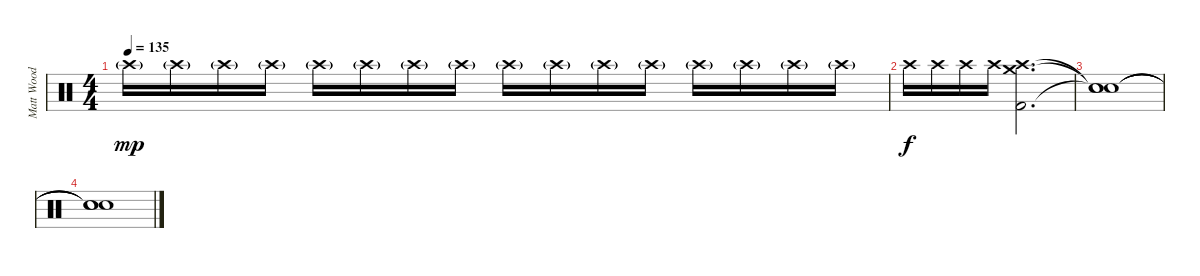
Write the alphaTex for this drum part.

\track ("Matt Wood" "Matt Wood") {instrument percussion}
\staff {score}
\articulation defaults
\ts (4 4)
\tempo 135
\clef neutral
\ks c "Crash high (hit)"{g}.16{dy mp} "Crash high (hit)"{g}.16 "Crash high (hit)"{g}.16 "Crash high (hit)"{g}.16 "Crash high (hit)"{g}.16 "Crash high (hit)"{g}.16 "Crash high (hit)"{g}.16 "Crash high (hit)"{g}.16 "Crash high (hit)"{g}.16 "Crash high (hit)"{g}.16 "Crash high (hit)"{g}.16 "Crash high (hit)"{g}.16 "Crash high (hit)"{g}.16 "Crash high (hit)"{g}.16 "Crash high (hit)"{g}.16 "Crash high (hit)"{g}.16
|
"Crash high (hit)".16{dy f} "Crash high (hit)".16 "Crash high (hit)".16 "Crash high (hit)".16 ("Crash medium (hit)" "Crash high (hit)" "Kick (hit) 2").2{d} |
("Snare (hit)"{t} "Snare (hit)"{t} "Snare (hit)"{t}).1 |
("Snare (hit)"{t} "Snare (hit)"{t} "Snare (hit)"{t}).1
